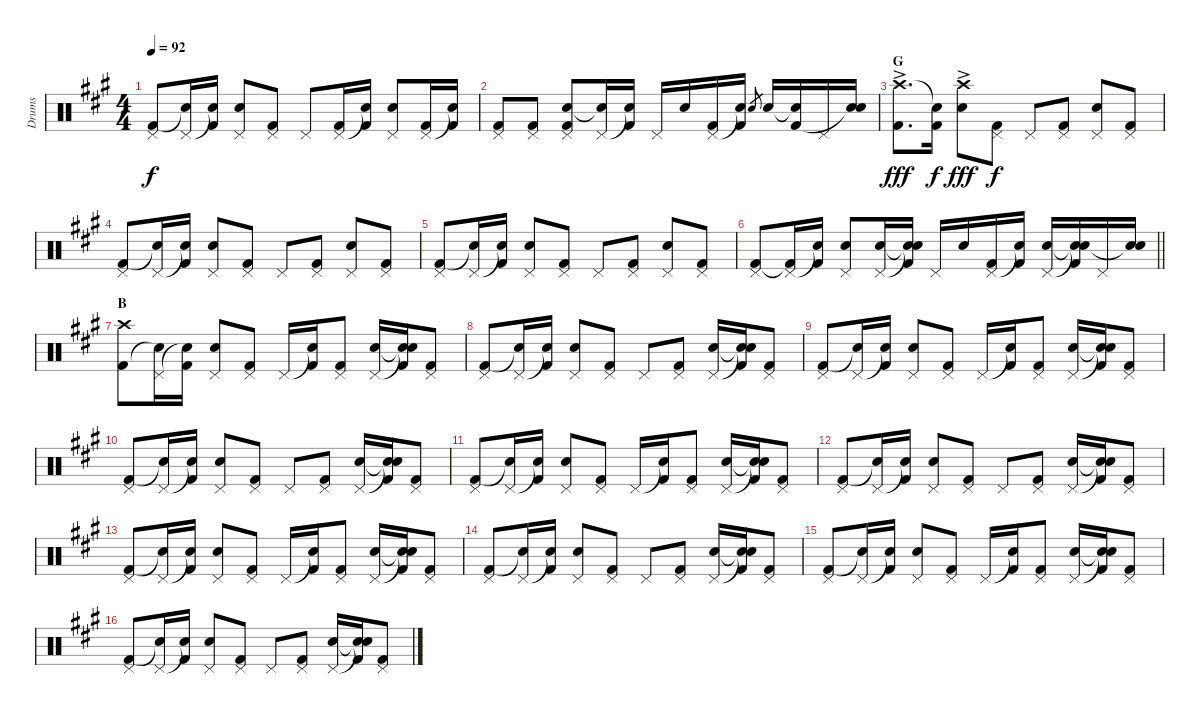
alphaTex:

\track ("Drums" "Drums") {instrument percussion}
\staff {score}
\articulation defaults
\ts (4 4)
\tempo 92
\clef neutral
\ks a
("Pedal Hi-Hat (hit)" "Kick (hit) 2").8{dy f} ("Pedal Hi-Hat (hit)" "Snare (hit)"{t}).16 ("Snare (hit)"{t} "Kick (hit) 2").16 ("Pedal Hi-Hat (hit)" "Electric Snare (hit)").8 ("Pedal Hi-Hat (hit)" "Kick (hit) 2").8 "Pedal Hi-Hat (hit)".8 ("Pedal Hi-Hat (hit)" "Kick (hit) 2").16 ("Snare (hit)"{t} "Kick (hit) 2").16 ("Pedal Hi-Hat (hit)" "Electric Snare (hit)").8 ("Pedal Hi-Hat (hit)" "Kick (hit) 2").16 ("Snare (hit)"{t} "Kick (hit) 2").16 |
("Pedal Hi-Hat (hit)" "Kick (hit) 2").8 ("Pedal Hi-Hat (hit)" "Kick (hit) 2").8 ("Pedal Hi-Hat (hit)" "Electric Snare (hit)" "Kick (hit) 2").8 ("Pedal Hi-Hat (hit)" "Snare (hit)"{t}).16 ("Snare (hit)"{t} "Kick (hit) 2").16 "Pedal Hi-Hat (hit)".16 "Electric Snare (hit)".16 ("Pedal Hi-Hat (hit)" "Kick (hit) 2").16 ("Snare (hit)"{t} "Kick (hit) 2").16 "Electric Snare (hit)".8{gr} "Electric Snare (hit)".16 ("Snare (hit)"{t} "Kick (hit) 2").16 "Pedal Hi-Hat (hit)".16 ("Electric Snare (hit)" "Snare (hit)"{t}).16 |
\section ("" "G")
("Crash high (hit)"{ac} "Kick (hit) 2").8{d dy fff} ("Snare (hit)"{t} "Kick (hit) 2").16{dy f} ("Crash high (hit)"{ac} "Electric Snare (hit)").8{dy fff} ("Pedal Hi-Hat (hit)" "Kick (hit) 2").8{dy f} "Pedal Hi-Hat (hit)".8 ("Pedal Hi-Hat (hit)" "Kick (hit) 2").8 ("Pedal Hi-Hat (hit)" "Electric Snare (hit)").8 ("Pedal Hi-Hat (hit)" "Kick (hit) 2").8 |
("Pedal Hi-Hat (hit)" "Kick (hit) 2").8 ("Pedal Hi-Hat (hit)" "Snare (hit)"{t}).16 ("Snare (hit)"{t} "Kick (hit) 2").16 ("Pedal Hi-Hat (hit)" "Electric Snare (hit)").8 ("Pedal Hi-Hat (hit)" "Kick (hit) 2").8 "Pedal Hi-Hat (hit)".8 ("Pedal Hi-Hat (hit)" "Kick (hit) 2").8 ("Pedal Hi-Hat (hit)" "Electric Snare (hit)").8 ("Pedal Hi-Hat (hit)" "Kick (hit) 2").8 |
("Pedal Hi-Hat (hit)" "Kick (hit) 2").8 ("Pedal Hi-Hat (hit)" "Snare (hit)"{t}).16 ("Snare (hit)"{t} "Kick (hit) 2").16 ("Pedal Hi-Hat (hit)" "Electric Snare (hit)").8 ("Pedal Hi-Hat (hit)" "Kick (hit) 2").8 "Pedal Hi-Hat (hit)".8 ("Pedal Hi-Hat (hit)" "Kick (hit) 2").8 ("Pedal Hi-Hat (hit)" "Electric Snare (hit)").8 ("Pedal Hi-Hat (hit)" "Kick (hit) 2").8 |
\barLineRight lightlight
("Pedal Hi-Hat (hit)" "Kick (hit) 2").8 ("Pedal Hi-Hat (hit)" "Kick (hit) 2"{t}).16 ("Snare (hit)"{t} "Kick (hit) 2").16 ("Pedal Hi-Hat (hit)" "Electric Snare (hit)").8 ("Pedal Hi-Hat (hit)" "Electric Snare (hit)").16 ("Snare (hit)"{t} "Snare (hit)"{t} "Kick (hit) 2").16 "Pedal Hi-Hat (hit)".16 "Electric Snare (hit)".16 ("Pedal Hi-Hat (hit)" "Kick (hit) 2").16 ("Snare (hit)"{t} "Kick (hit) 2").16 ("Pedal Hi-Hat (hit)" "Electric Snare (hit)").16 ("Snare (hit)"{t} "Snare (hit)"{t} "Kick (hit) 2").16 "Pedal Hi-Hat (hit)".16 ("Electric Snare (hit)" "Snare (hit)"{t}).16 |
\section ("" "B")
("Crash high (hit)" "Kick (hit) 2").8 ("Pedal Hi-Hat (hit)" "Snare (hit)"{t}).16 ("Snare (hit)"{t} "Kick (hit) 2").16 ("Pedal Hi-Hat (hit)" "Electric Snare (hit)").8 ("Pedal Hi-Hat (hit)" "Kick (hit) 2").8 "Pedal Hi-Hat (hit)".16 ("Snare (hit)"{t} "Kick (hit) 2").16 ("Pedal Hi-Hat (hit)" "Kick (hit) 2").8 ("Pedal Hi-Hat (hit)" "Electric Snare (hit)").16 ("Snare (hit)"{t} "Snare (hit)"{t} "Kick (hit) 2").16 ("Pedal Hi-Hat (hit)" "Kick (hit) 2").8 |
("Pedal Hi-Hat (hit)" "Kick (hit) 2").8 ("Pedal Hi-Hat (hit)" "Snare (hit)"{t}).16 ("Snare (hit)"{t} "Kick (hit) 2").16 ("Pedal Hi-Hat (hit)" "Electric Snare (hit)").8 ("Pedal Hi-Hat (hit)" "Kick (hit) 2").8 "Pedal Hi-Hat (hit)".8 ("Pedal Hi-Hat (hit)" "Kick (hit) 2").8 ("Pedal Hi-Hat (hit)" "Electric Snare (hit)").16 ("Snare (hit)"{t} "Snare (hit)"{t} "Kick (hit) 2").16 ("Pedal Hi-Hat (hit)" "Kick (hit) 2").8 |
("Pedal Hi-Hat (hit)" "Kick (hit) 2").8 ("Pedal Hi-Hat (hit)" "Snare (hit)"{t}).16 ("Snare (hit)"{t} "Kick (hit) 2").16 ("Pedal Hi-Hat (hit)" "Electric Snare (hit)").8 ("Pedal Hi-Hat (hit)" "Kick (hit) 2").8 "Pedal Hi-Hat (hit)".16 ("Snare (hit)"{t} "Kick (hit) 2").16 ("Pedal Hi-Hat (hit)" "Kick (hit) 2").8 ("Pedal Hi-Hat (hit)" "Electric Snare (hit)").16 ("Snare (hit)"{t} "Snare (hit)"{t} "Kick (hit) 2").16 ("Pedal Hi-Hat (hit)" "Kick (hit) 2").8 |
("Pedal Hi-Hat (hit)" "Kick (hit) 2").8 ("Pedal Hi-Hat (hit)" "Snare (hit)"{t}).16 ("Snare (hit)"{t} "Kick (hit) 2").16 ("Pedal Hi-Hat (hit)" "Electric Snare (hit)").8 ("Pedal Hi-Hat (hit)" "Kick (hit) 2").8 "Pedal Hi-Hat (hit)".8 ("Pedal Hi-Hat (hit)" "Kick (hit) 2").8 ("Pedal Hi-Hat (hit)" "Electric Snare (hit)").16 ("Snare (hit)"{t} "Snare (hit)"{t} "Kick (hit) 2").16 ("Pedal Hi-Hat (hit)" "Kick (hit) 2").8 |
("Pedal Hi-Hat (hit)" "Kick (hit) 2").8 ("Pedal Hi-Hat (hit)" "Snare (hit)"{t}).16 ("Snare (hit)"{t} "Kick (hit) 2").16 ("Pedal Hi-Hat (hit)" "Electric Snare (hit)").8 ("Pedal Hi-Hat (hit)" "Kick (hit) 2").8 "Pedal Hi-Hat (hit)".16 ("Snare (hit)"{t} "Kick (hit) 2").16 ("Pedal Hi-Hat (hit)" "Kick (hit) 2").8 ("Pedal Hi-Hat (hit)" "Electric Snare (hit)").16 ("Snare (hit)"{t} "Snare (hit)"{t} "Kick (hit) 2").16 ("Pedal Hi-Hat (hit)" "Kick (hit) 2").8 |
("Pedal Hi-Hat (hit)" "Kick (hit) 2").8 ("Pedal Hi-Hat (hit)" "Snare (hit)"{t}).16 ("Snare (hit)"{t} "Kick (hit) 2").16 ("Pedal Hi-Hat (hit)" "Electric Snare (hit)").8 ("Pedal Hi-Hat (hit)" "Kick (hit) 2").8 "Pedal Hi-Hat (hit)".8 ("Pedal Hi-Hat (hit)" "Kick (hit) 2").8 ("Pedal Hi-Hat (hit)" "Electric Snare (hit)").16 ("Snare (hit)"{t} "Snare (hit)"{t} "Kick (hit) 2").16 ("Pedal Hi-Hat (hit)" "Kick (hit) 2").8 |
("Pedal Hi-Hat (hit)" "Kick (hit) 2").8 ("Pedal Hi-Hat (hit)" "Snare (hit)"{t}).16 ("Snare (hit)"{t} "Kick (hit) 2").16 ("Pedal Hi-Hat (hit)" "Electric Snare (hit)").8 ("Pedal Hi-Hat (hit)" "Kick (hit) 2").8 "Pedal Hi-Hat (hit)".16 ("Snare (hit)"{t} "Kick (hit) 2").16 ("Pedal Hi-Hat (hit)" "Kick (hit) 2").8 ("Pedal Hi-Hat (hit)" "Electric Snare (hit)").16 ("Snare (hit)"{t} "Snare (hit)"{t} "Kick (hit) 2").16 ("Pedal Hi-Hat (hit)" "Kick (hit) 2").8 |
("Pedal Hi-Hat (hit)" "Kick (hit) 2").8 ("Pedal Hi-Hat (hit)" "Snare (hit)"{t}).16 ("Snare (hit)"{t} "Kick (hit) 2").16 ("Pedal Hi-Hat (hit)" "Electric Snare (hit)").8 ("Pedal Hi-Hat (hit)" "Kick (hit) 2").8 "Pedal Hi-Hat (hit)".8 ("Pedal Hi-Hat (hit)" "Kick (hit) 2").8 ("Pedal Hi-Hat (hit)" "Electric Snare (hit)").16 ("Snare (hit)"{t} "Snare (hit)"{t} "Kick (hit) 2").16 ("Pedal Hi-Hat (hit)" "Kick (hit) 2").8 |
("Pedal Hi-Hat (hit)" "Kick (hit) 2").8 ("Pedal Hi-Hat (hit)" "Snare (hit)"{t}).16 ("Snare (hit)"{t} "Kick (hit) 2").16 ("Pedal Hi-Hat (hit)" "Electric Snare (hit)").8 ("Pedal Hi-Hat (hit)" "Kick (hit) 2").8 "Pedal Hi-Hat (hit)".16 ("Snare (hit)"{t} "Kick (hit) 2").16 ("Pedal Hi-Hat (hit)" "Kick (hit) 2").8 ("Pedal Hi-Hat (hit)" "Electric Snare (hit)").16 ("Snare (hit)"{t} "Snare (hit)"{t} "Kick (hit) 2").16 ("Pedal Hi-Hat (hit)" "Kick (hit) 2").8 |
("Pedal Hi-Hat (hit)" "Kick (hit) 2").8 ("Pedal Hi-Hat (hit)" "Snare (hit)"{t}).16 ("Snare (hit)"{t} "Kick (hit) 2").16 ("Pedal Hi-Hat (hit)" "Electric Snare (hit)").8 ("Pedal Hi-Hat (hit)" "Kick (hit) 2").8 "Pedal Hi-Hat (hit)".8 ("Pedal Hi-Hat (hit)" "Kick (hit) 2").8 ("Pedal Hi-Hat (hit)" "Electric Snare (hit)").16 ("Snare (hit)"{t} "Snare (hit)"{t} "Kick (hit) 2").16 ("Pedal Hi-Hat (hit)" "Kick (hit) 2").8
